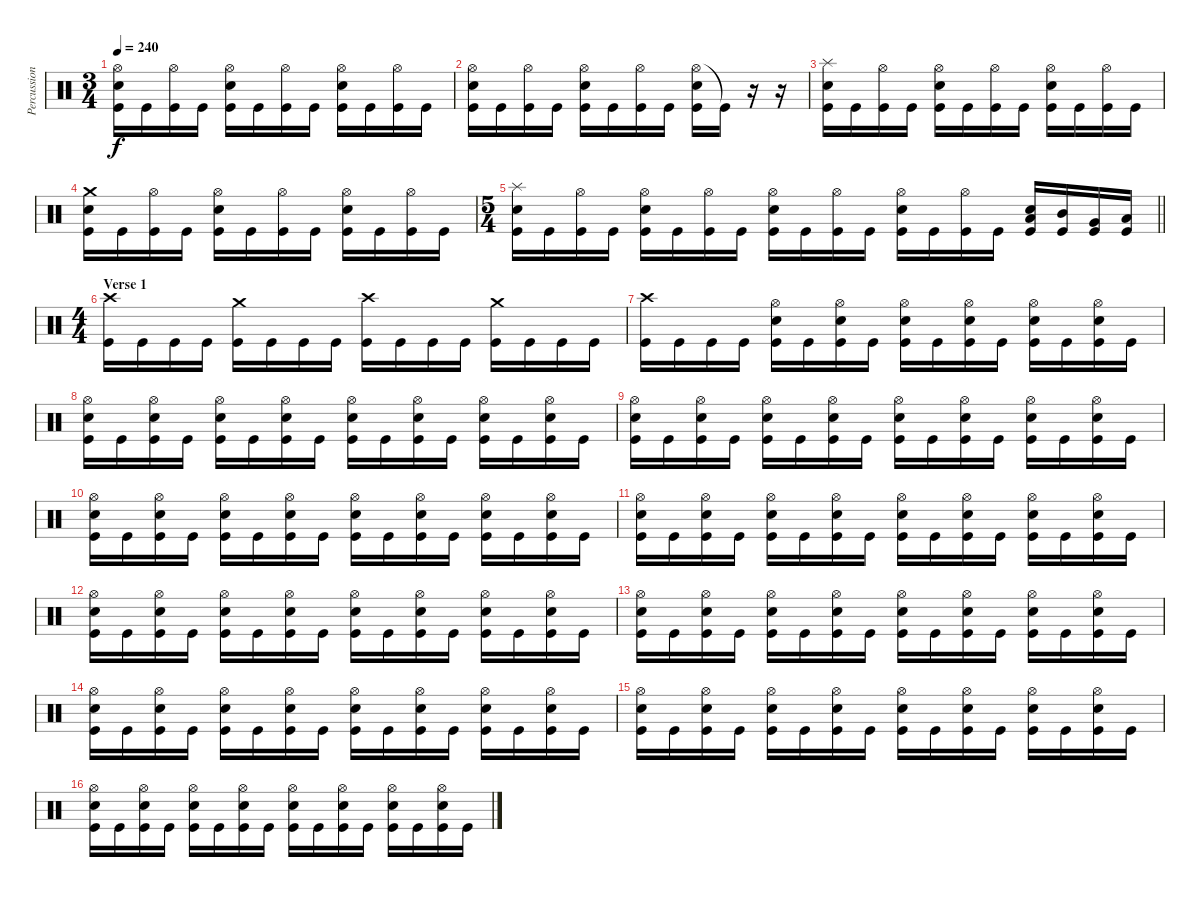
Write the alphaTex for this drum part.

\track ("Percussion" "Percussion") {instrument percussion}
\staff {score}
\articulation defaults
\ts (3 4)
\tempo 240
\clef neutral
\ks c
("Hi-Hat (open)" "Snare (hit) 2" "Kick (hit)").16{dy f} "Kick (hit)".16 ("Hi-Hat (open)" "Kick (hit)").16 "Kick (hit)".16 ("Hi-Hat (open)" "Snare (hit) 2" "Kick (hit)").16 "Kick (hit)".16 ("Hi-Hat (open)" "Kick (hit)").16 "Kick (hit)".16 ("Hi-Hat (open)" "Snare (hit) 2" "Kick (hit)").16 "Kick (hit)".16 ("Hi-Hat (open)" "Kick (hit)").16 "Kick (hit)".16 |
("Hi-Hat (open)" "Snare (hit) 2" "Kick (hit)").16 "Kick (hit)".16 ("Hi-Hat (open)" "Kick (hit)").16 "Kick (hit)".16 ("Hi-Hat (open)" "Snare (hit) 2" "Kick (hit)").16 "Kick (hit)".16 ("Hi-Hat (open)" "Kick (hit)").16 "Kick (hit)".16 ("Hi-Hat (open)" "Snare (hit) 2" "Kick (hit)").16 "Kick (hit)"{t}.16 r.16 r.16 |
("Splash (hit)" "Snare (hit) 2" "Kick (hit)").16 "Kick (hit)".16 ("Hi-Hat (open)" "Kick (hit)").16 "Kick (hit)".16 ("Hi-Hat (open)" "Snare (hit) 2" "Kick (hit)").16 "Kick (hit)".16 ("Hi-Hat (open)" "Kick (hit)").16 "Kick (hit)".16 ("Hi-Hat (open)" "Snare (hit) 2" "Kick (hit)").16 "Kick (hit)".16 ("Hi-Hat (open)" "Kick (hit)").16 "Kick (hit)".16 |
("Crash medium (hit)" "Snare (hit) 2" "Kick (hit)").16 "Kick (hit)".16 ("Hi-Hat (open)" "Kick (hit)").16 "Kick (hit)".16 ("Hi-Hat (open)" "Snare (hit) 2" "Kick (hit)").16 "Kick (hit)".16 ("Hi-Hat (open)" "Kick (hit)").16 "Kick (hit)".16 ("Hi-Hat (open)" "Snare (hit) 2" "Kick (hit)").16 "Kick (hit)".16 ("Hi-Hat (open)" "Kick (hit)").16 "Kick (hit)".16 |
\ts (5 4)
\barLineRight lightlight
("Splash (hit)" "Snare (hit) 2" "Kick (hit)").16 "Kick (hit)".16 ("Hi-Hat (open)" "Kick (hit)").16 "Kick (hit)".16 ("Hi-Hat (open)" "Snare (hit) 2" "Kick (hit)").16 "Kick (hit)".16 ("Hi-Hat (open)" "Kick (hit)").16 "Kick (hit)".16 ("Hi-Hat (open)" "Snare (hit) 2" "Kick (hit)").16 "Kick (hit)".16 ("Hi-Hat (open)" "Kick (hit)").16 "Kick (hit)".16 ("Hi-Hat (open)" "Snare (hit) 2" "Kick (hit)").16 "Kick (hit)".16 ("Hi-Hat (open)" "Kick (hit)").16 "Kick (hit)".16 ("Snare (hit) 2" "Low Tom (hit)" "Kick (hit)").16 ("Mid Tom (hit)" "Kick (hit)").16 ("Very Low Tom (hit)" "Kick (hit)").16 ("Low Tom (hit)" "Kick (hit)").16 |
\ts (4 4)
\section ("" "Verse 1")
("Crash high (hit)" "Kick (hit)").16 "Kick (hit)".16 "Kick (hit)".16 "Kick (hit)".16 ("Crash medium (hit)" "Kick (hit)").16 "Kick (hit)".16 "Kick (hit)".16 "Kick (hit)".16 ("Crash high (hit)" "Kick (hit)").16 "Kick (hit)".16 "Kick (hit)".16 "Kick (hit)".16 ("Crash medium (hit)" "Kick (hit)").16 "Kick (hit)".16 "Kick (hit)".16 "Kick (hit)".16 |
("Crash high (hit)" "Kick (hit)").16 "Kick (hit)".16 "Kick (hit)".16 "Kick (hit)".16 ("Hi-Hat (open)" "Snare (hit) 2" "Kick (hit)").16 "Kick (hit)".16 ("Hi-Hat (open)" "Snare (hit) 2" "Kick (hit)").16 "Kick (hit)".16 ("Hi-Hat (open)" "Snare (hit) 2" "Kick (hit)").16 "Kick (hit)".16 ("Hi-Hat (open)" "Snare (hit) 2" "Kick (hit)").16 "Kick (hit)".16 ("Hi-Hat (open)" "Snare (hit) 2" "Kick (hit)").16 "Kick (hit)".16 ("Hi-Hat (open)" "Snare (hit) 2" "Kick (hit)").16 "Kick (hit)".16 |
("Hi-Hat (open)" "Snare (hit) 2" "Kick (hit)").16 "Kick (hit)".16 ("Hi-Hat (open)" "Snare (hit) 2" "Kick (hit)").16 "Kick (hit)".16 ("Hi-Hat (open)" "Snare (hit) 2" "Kick (hit)").16 "Kick (hit)".16 ("Hi-Hat (open)" "Snare (hit) 2" "Kick (hit)").16 "Kick (hit)".16 ("Hi-Hat (open)" "Snare (hit) 2" "Kick (hit)").16 "Kick (hit)".16 ("Hi-Hat (open)" "Snare (hit) 2" "Kick (hit)").16 "Kick (hit)".16 ("Hi-Hat (open)" "Snare (hit) 2" "Kick (hit)").16 "Kick (hit)".16 ("Hi-Hat (open)" "Snare (hit) 2" "Kick (hit)").16 "Kick (hit)".16 |
("Hi-Hat (open)" "Snare (hit) 2" "Kick (hit)").16 "Kick (hit)".16 ("Hi-Hat (open)" "Snare (hit) 2" "Kick (hit)").16 "Kick (hit)".16 ("Hi-Hat (open)" "Snare (hit) 2" "Kick (hit)").16 "Kick (hit)".16 ("Hi-Hat (open)" "Snare (hit) 2" "Kick (hit)").16 "Kick (hit)".16 ("Hi-Hat (open)" "Snare (hit) 2" "Kick (hit)").16 "Kick (hit)".16 ("Hi-Hat (open)" "Snare (hit) 2" "Kick (hit)").16 "Kick (hit)".16 ("Hi-Hat (open)" "Snare (hit) 2" "Kick (hit)").16 "Kick (hit)".16 ("Hi-Hat (open)" "Snare (hit) 2" "Kick (hit)").16 "Kick (hit)".16 |
("Hi-Hat (open)" "Snare (hit) 2" "Kick (hit)").16 "Kick (hit)".16 ("Hi-Hat (open)" "Snare (hit) 2" "Kick (hit)").16 "Kick (hit)".16 ("Hi-Hat (open)" "Snare (hit) 2" "Kick (hit)").16 "Kick (hit)".16 ("Hi-Hat (open)" "Snare (hit) 2" "Kick (hit)").16 "Kick (hit)".16 ("Hi-Hat (open)" "Snare (hit) 2" "Kick (hit)").16 "Kick (hit)".16 ("Hi-Hat (open)" "Snare (hit) 2" "Kick (hit)").16 "Kick (hit)".16 ("Hi-Hat (open)" "Snare (hit) 2" "Kick (hit)").16 "Kick (hit)".16 ("Hi-Hat (open)" "Snare (hit) 2" "Kick (hit)").16 "Kick (hit)".16 |
("Hi-Hat (open)" "Snare (hit) 2" "Kick (hit)").16 "Kick (hit)".16 ("Hi-Hat (open)" "Snare (hit) 2" "Kick (hit)").16 "Kick (hit)".16 ("Hi-Hat (open)" "Snare (hit) 2" "Kick (hit)").16 "Kick (hit)".16 ("Hi-Hat (open)" "Snare (hit) 2" "Kick (hit)").16 "Kick (hit)".16 ("Hi-Hat (open)" "Snare (hit) 2" "Kick (hit)").16 "Kick (hit)".16 ("Hi-Hat (open)" "Snare (hit) 2" "Kick (hit)").16 "Kick (hit)".16 ("Hi-Hat (open)" "Snare (hit) 2" "Kick (hit)").16 "Kick (hit)".16 ("Hi-Hat (open)" "Snare (hit) 2" "Kick (hit)").16 "Kick (hit)".16 |
("Hi-Hat (open)" "Snare (hit) 2" "Kick (hit)").16 "Kick (hit)".16 ("Hi-Hat (open)" "Snare (hit) 2" "Kick (hit)").16 "Kick (hit)".16 ("Hi-Hat (open)" "Snare (hit) 2" "Kick (hit)").16 "Kick (hit)".16 ("Hi-Hat (open)" "Snare (hit) 2" "Kick (hit)").16 "Kick (hit)".16 ("Hi-Hat (open)" "Snare (hit) 2" "Kick (hit)").16 "Kick (hit)".16 ("Hi-Hat (open)" "Snare (hit) 2" "Kick (hit)").16 "Kick (hit)".16 ("Hi-Hat (open)" "Snare (hit) 2" "Kick (hit)").16 "Kick (hit)".16 ("Hi-Hat (open)" "Snare (hit) 2" "Kick (hit)").16 "Kick (hit)".16 |
("Hi-Hat (open)" "Snare (hit) 2" "Kick (hit)").16 "Kick (hit)".16 ("Hi-Hat (open)" "Snare (hit) 2" "Kick (hit)").16 "Kick (hit)".16 ("Hi-Hat (open)" "Snare (hit) 2" "Kick (hit)").16 "Kick (hit)".16 ("Hi-Hat (open)" "Snare (hit) 2" "Kick (hit)").16 "Kick (hit)".16 ("Hi-Hat (open)" "Snare (hit) 2" "Kick (hit)").16 "Kick (hit)".16 ("Hi-Hat (open)" "Snare (hit) 2" "Kick (hit)").16 "Kick (hit)".16 ("Hi-Hat (open)" "Snare (hit) 2" "Kick (hit)").16 "Kick (hit)".16 ("Hi-Hat (open)" "Snare (hit) 2" "Kick (hit)").16 "Kick (hit)".16 |
("Hi-Hat (open)" "Snare (hit) 2" "Kick (hit)").16 "Kick (hit)".16 ("Hi-Hat (open)" "Snare (hit) 2" "Kick (hit)").16 "Kick (hit)".16 ("Hi-Hat (open)" "Snare (hit) 2" "Kick (hit)").16 "Kick (hit)".16 ("Hi-Hat (open)" "Snare (hit) 2" "Kick (hit)").16 "Kick (hit)".16 ("Hi-Hat (open)" "Snare (hit) 2" "Kick (hit)").16 "Kick (hit)".16 ("Hi-Hat (open)" "Snare (hit) 2" "Kick (hit)").16 "Kick (hit)".16 ("Hi-Hat (open)" "Snare (hit) 2" "Kick (hit)").16 "Kick (hit)".16 ("Hi-Hat (open)" "Snare (hit) 2" "Kick (hit)").16 "Kick (hit)".16 |
("Hi-Hat (open)" "Snare (hit) 2" "Kick (hit)").16 "Kick (hit)".16 ("Hi-Hat (open)" "Snare (hit) 2" "Kick (hit)").16 "Kick (hit)".16 ("Hi-Hat (open)" "Snare (hit) 2" "Kick (hit)").16 "Kick (hit)".16 ("Hi-Hat (open)" "Snare (hit) 2" "Kick (hit)").16 "Kick (hit)".16 ("Hi-Hat (open)" "Snare (hit) 2" "Kick (hit)").16 "Kick (hit)".16 ("Hi-Hat (open)" "Snare (hit) 2" "Kick (hit)").16 "Kick (hit)".16 ("Hi-Hat (open)" "Snare (hit) 2" "Kick (hit)").16 "Kick (hit)".16 ("Hi-Hat (open)" "Snare (hit) 2" "Kick (hit)").16 "Kick (hit)".16 |
("Hi-Hat (open)" "Snare (hit) 2" "Kick (hit)").16 "Kick (hit)".16 ("Hi-Hat (open)" "Snare (hit) 2" "Kick (hit)").16 "Kick (hit)".16 ("Hi-Hat (open)" "Snare (hit) 2" "Kick (hit)").16 "Kick (hit)".16 ("Hi-Hat (open)" "Snare (hit) 2" "Kick (hit)").16 "Kick (hit)".16 ("Hi-Hat (open)" "Snare (hit) 2" "Kick (hit)").16 "Kick (hit)".16 ("Hi-Hat (open)" "Snare (hit) 2" "Kick (hit)").16 "Kick (hit)".16 ("Hi-Hat (open)" "Snare (hit) 2" "Kick (hit)").16 "Kick (hit)".16 ("Hi-Hat (open)" "Snare (hit) 2" "Kick (hit)").16 "Kick (hit)".16
